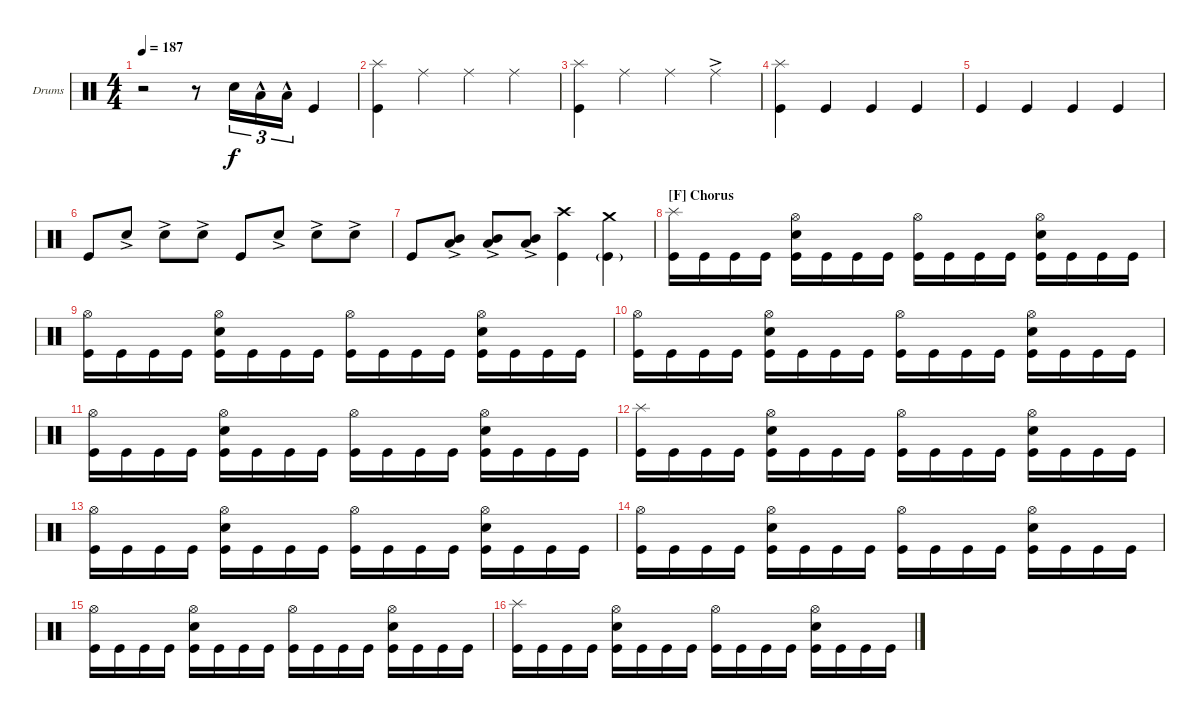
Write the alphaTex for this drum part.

\defaultSystemsLayout 4
\bracketExtendMode groupsimilarinstruments
\firstSystemTrackNameOrientation horizontal
\otherSystemsTrackNameOrientation horizontal
\track ("Drumkit" "Drums") {instrument percussion}
\staff {score}
\articulation defaults
\ts (4 4)
\tempo 187
\clef neutral
\ks c
r.2{dy f} r.8 "Snare (hit) 2".16{tu (3 2)} "Low Tom (hit)"{hac}.16{tu (3 2)} "Low Tom (hit)"{hac}.16{tu (3 2)} "Kick (hit)".4 |
("Kick (hit)" "Splash (hit)").4 "Ride (middle)".4 "Ride (middle)".4 "Ride (middle)".4 |
("Kick (hit)" "Splash (hit)").4 "Ride (middle)".4 "Ride (middle)".4 "Ride (middle)"{ac}.4 |
("Kick (hit)" "Splash (hit)").4 "Kick (hit)".4 "Kick (hit)".4 "Kick (hit)".4 |
"Kick (hit)".4 "Kick (hit)".4 "Kick (hit)".4 "Kick (hit)".4 |
"Kick (hit)".8 "Snare (hit) 2"{ac}.8 "Snare (hit) 2"{ac}.8 "Snare (hit) 2"{ac}.8 "Kick (hit)".8 "Snare (hit) 2"{ac}.8 "Snare (hit) 2"{ac}.8 "Snare (hit) 2"{ac}.8 |
"Kick (hit)".8 ("Low Tom (hit)"{ac} "Mid Tom (hit)").8 ("Low Tom (hit)"{ac} "Mid Tom (hit)").8 ("Low Tom (hit)"{ac} "Mid Tom (hit)").8 ("Kick (hit)" "Crash high (hit)").4 ("Kick (hit)"{g} "Crash medium (hit)").4 |
\section ("F" "Chorus")
("Splash (hit)" "Kick (hit)").16 "Kick (hit)".16 "Kick (hit)".16 "Kick (hit)".16 ("Snare (hit) 2" "Hi-Hat (open)" "Kick (hit)").16 "Kick (hit)".16 "Kick (hit)".16 "Kick (hit)".16 ("Kick (hit)" "Hi-Hat (open)").16 "Kick (hit)".16 "Kick (hit)".16 "Kick (hit)".16 ("Snare (hit) 2" "Hi-Hat (open)" "Kick (hit)").16 "Kick (hit)".16 "Kick (hit)".16 "Kick (hit)".16 |
("Kick (hit)" "Hi-Hat (open)").16 "Kick (hit)".16 "Kick (hit)".16 "Kick (hit)".16 ("Snare (hit) 2" "Hi-Hat (open)" "Kick (hit)").16 "Kick (hit)".16 "Kick (hit)".16 "Kick (hit)".16 ("Kick (hit)" "Hi-Hat (open)").16 "Kick (hit)".16 "Kick (hit)".16 "Kick (hit)".16 ("Snare (hit) 2" "Hi-Hat (open)" "Kick (hit)").16 "Kick (hit)".16 "Kick (hit)".16 "Kick (hit)".16 |
("Kick (hit)" "Hi-Hat (open)").16 "Kick (hit)".16 "Kick (hit)".16 "Kick (hit)".16 ("Snare (hit) 2" "Hi-Hat (open)" "Kick (hit)").16 "Kick (hit)".16 "Kick (hit)".16 "Kick (hit)".16 ("Kick (hit)" "Hi-Hat (open)").16 "Kick (hit)".16 "Kick (hit)".16 "Kick (hit)".16 ("Snare (hit) 2" "Hi-Hat (open)" "Kick (hit)").16 "Kick (hit)".16 "Kick (hit)".16 "Kick (hit)".16 |
("Kick (hit)" "Hi-Hat (open)").16 "Kick (hit)".16 "Kick (hit)".16 "Kick (hit)".16 ("Snare (hit) 2" "Hi-Hat (open)" "Kick (hit)").16 "Kick (hit)".16 "Kick (hit)".16 "Kick (hit)".16 ("Kick (hit)" "Hi-Hat (open)").16 "Kick (hit)".16 "Kick (hit)".16 "Kick (hit)".16 ("Snare (hit) 2" "Hi-Hat (open)" "Kick (hit)").16 "Kick (hit)".16 "Kick (hit)".16 "Kick (hit)".16 |
("Splash (hit)" "Kick (hit)").16 "Kick (hit)".16 "Kick (hit)".16 "Kick (hit)".16 ("Snare (hit) 2" "Hi-Hat (open)" "Kick (hit)").16 "Kick (hit)".16 "Kick (hit)".16 "Kick (hit)".16 ("Kick (hit)" "Hi-Hat (open)").16 "Kick (hit)".16 "Kick (hit)".16 "Kick (hit)".16 ("Snare (hit) 2" "Hi-Hat (open)" "Kick (hit)").16 "Kick (hit)".16 "Kick (hit)".16 "Kick (hit)".16 |
("Kick (hit)" "Hi-Hat (open)").16 "Kick (hit)".16 "Kick (hit)".16 "Kick (hit)".16 ("Snare (hit) 2" "Hi-Hat (open)" "Kick (hit)").16 "Kick (hit)".16 "Kick (hit)".16 "Kick (hit)".16 ("Kick (hit)" "Hi-Hat (open)").16 "Kick (hit)".16 "Kick (hit)".16 "Kick (hit)".16 ("Snare (hit) 2" "Hi-Hat (open)" "Kick (hit)").16 "Kick (hit)".16 "Kick (hit)".16 "Kick (hit)".16 |
("Kick (hit)" "Hi-Hat (open)").16 "Kick (hit)".16 "Kick (hit)".16 "Kick (hit)".16 ("Snare (hit) 2" "Hi-Hat (open)" "Kick (hit)").16 "Kick (hit)".16 "Kick (hit)".16 "Kick (hit)".16 ("Kick (hit)" "Hi-Hat (open)").16 "Kick (hit)".16 "Kick (hit)".16 "Kick (hit)".16 ("Snare (hit) 2" "Hi-Hat (open)" "Kick (hit)").16 "Kick (hit)".16 "Kick (hit)".16 "Kick (hit)".16 |
("Kick (hit)" "Hi-Hat (open)").16 "Kick (hit)".16 "Kick (hit)".16 "Kick (hit)".16 ("Snare (hit) 2" "Hi-Hat (open)" "Kick (hit)").16 "Kick (hit)".16 "Kick (hit)".16 "Kick (hit)".16 ("Kick (hit)" "Hi-Hat (open)").16 "Kick (hit)".16 "Kick (hit)".16 "Kick (hit)".16 ("Snare (hit) 2" "Hi-Hat (open)" "Kick (hit)").16 "Kick (hit)".16 "Kick (hit)".16 "Kick (hit)".16 |
("Splash (hit)" "Kick (hit)").16 "Kick (hit)".16 "Kick (hit)".16 "Kick (hit)".16 ("Snare (hit) 2" "Hi-Hat (open)" "Kick (hit)").16 "Kick (hit)".16 "Kick (hit)".16 "Kick (hit)".16 ("Kick (hit)" "Hi-Hat (open)").16 "Kick (hit)".16 "Kick (hit)".16 "Kick (hit)".16 ("Snare (hit) 2" "Hi-Hat (open)" "Kick (hit)").16 "Kick (hit)".16 "Kick (hit)".16 "Kick (hit)".16
